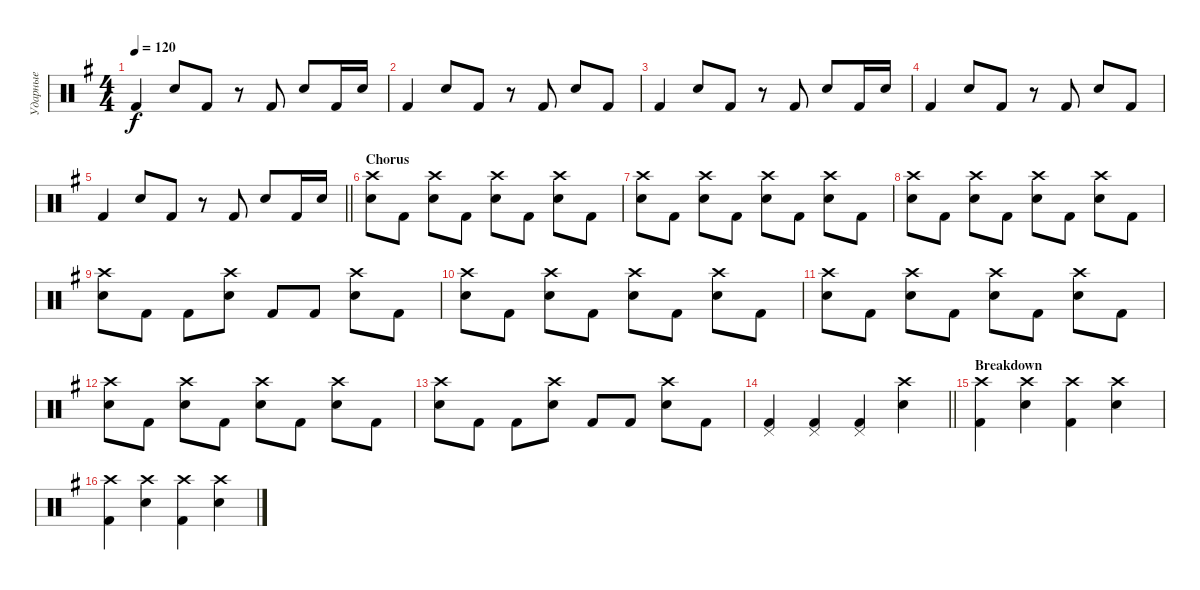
\track ("Ударные" "Ударные") {instrument percussion}
\staff {score}
\articulation defaults
\ts (4 4)
\tempo 120
\clef neutral
\ks g "Kick (hit) 2".4{dy f} "Snare (hit) 2".8 "Kick (hit) 2".8
r.8 "Kick (hit) 2".8 "Snare (hit) 2".8 "Kick (hit) 2".16 "Snare (hit) 2".16 |
"Kick (hit) 2".4 "Snare (hit) 2".8 "Kick (hit) 2".8 r.8 "Kick (hit) 2".8 "Snare (hit) 2".8 "Kick (hit) 2".8 |
"Kick (hit) 2".4 "Snare (hit) 2".8 "Kick (hit) 2".8 r.8 "Kick (hit) 2".8 "Snare (hit) 2".8 "Kick (hit) 2".16 "Snare (hit) 2".16 |
"Kick (hit) 2".4 "Snare (hit) 2".8 "Kick (hit) 2".8 r.8 "Kick (hit) 2".8 "Snare (hit) 2".8 "Kick (hit) 2".8 |
\barLineRight lightlight "Kick (hit) 2".4 "Snare (hit) 2".8 "Kick (hit) 2".8
r.8 "Kick (hit) 2".8 "Snare (hit) 2".8 "Kick (hit) 2".16 "Snare (hit) 2".16 |
\section ("" "Chorus")
("Snare (hit) 2" "Crash high (hit)").8 "Kick (hit) 2".8 ("Snare (hit) 2" "Crash high (hit)").8 "Kick (hit) 2".8 ("Snare (hit) 2" "Crash high (hit)").8 "Kick (hit) 2".8 ("Snare (hit) 2" "Crash high (hit)").8 "Kick (hit) 2".8 |
("Snare (hit) 2" "Crash high (hit)").8 "Kick (hit) 2".8 ("Snare (hit) 2" "Crash high (hit)").8 "Kick (hit) 2".8 ("Snare (hit) 2" "Crash high (hit)").8 "Kick (hit) 2".8 ("Snare (hit) 2" "Crash high (hit)").8 "Kick (hit) 2".8 |
("Snare (hit) 2" "Crash high (hit)").8 "Kick (hit) 2".8 ("Snare (hit) 2" "Crash high (hit)").8 "Kick (hit) 2".8 ("Snare (hit) 2" "Crash high (hit)").8 "Kick (hit) 2".8 ("Snare (hit) 2" "Crash high (hit)").8 "Kick (hit) 2".8 |
("Snare (hit) 2" "Crash high (hit)").8 "Kick (hit) 2".8 "Kick (hit) 2".8 ("Snare (hit) 2" "Crash high (hit)").8 "Kick (hit) 2".8 "Kick (hit) 2".8 ("Snare (hit) 2" "Crash high (hit)").8 "Kick (hit) 2".8 |
("Snare (hit) 2" "Crash high (hit)").8 "Kick (hit) 2".8 ("Snare (hit) 2" "Crash high (hit)").8 "Kick (hit) 2".8 ("Snare (hit) 2" "Crash high (hit)").8 "Kick (hit) 2".8 ("Snare (hit) 2" "Crash high (hit)").8 "Kick (hit) 2".8 |
("Snare (hit) 2" "Crash high (hit)").8 "Kick (hit) 2".8 ("Snare (hit) 2" "Crash high (hit)").8 "Kick (hit) 2".8 ("Snare (hit) 2" "Crash high (hit)").8 "Kick (hit) 2".8 ("Snare (hit) 2" "Crash high (hit)").8 "Kick (hit) 2".8 |
("Snare (hit) 2" "Crash high (hit)").8 "Kick (hit) 2".8 ("Snare (hit) 2" "Crash high (hit)").8 "Kick (hit) 2".8 ("Snare (hit) 2" "Crash high (hit)").8 "Kick (hit) 2".8 ("Snare (hit) 2" "Crash high (hit)").8 "Kick (hit) 2".8 |
("Snare (hit) 2" "Crash high (hit)").8 "Kick (hit) 2".8 "Kick (hit) 2".8 ("Snare (hit) 2" "Crash high (hit)").8 "Kick (hit) 2".8 "Kick (hit) 2".8 ("Snare (hit) 2" "Crash high (hit)").8 "Kick (hit) 2".8 |
\barLineRight lightlight
("Kick (hit) 2" "Pedal Hi-Hat (hit)").4 ("Kick (hit) 2" "Pedal Hi-Hat (hit)").4 ("Kick (hit) 2" "Pedal Hi-Hat (hit)").4 ("Snare (hit) 2" "Crash high (hit)").4 |
\section ("" "Breakdown")
("Kick (hit) 2" "Crash high (hit)").4 ("Snare (hit) 2" "Crash high (hit)").4 ("Kick (hit) 2" "Crash high (hit)").4 ("Snare (hit) 2" "Crash high (hit)").4 |
("Kick (hit) 2" "Crash high (hit)").4 ("Snare (hit) 2" "Crash high (hit)").4 ("Kick (hit) 2" "Crash high (hit)").4 ("Snare (hit) 2" "Crash high (hit)").4
